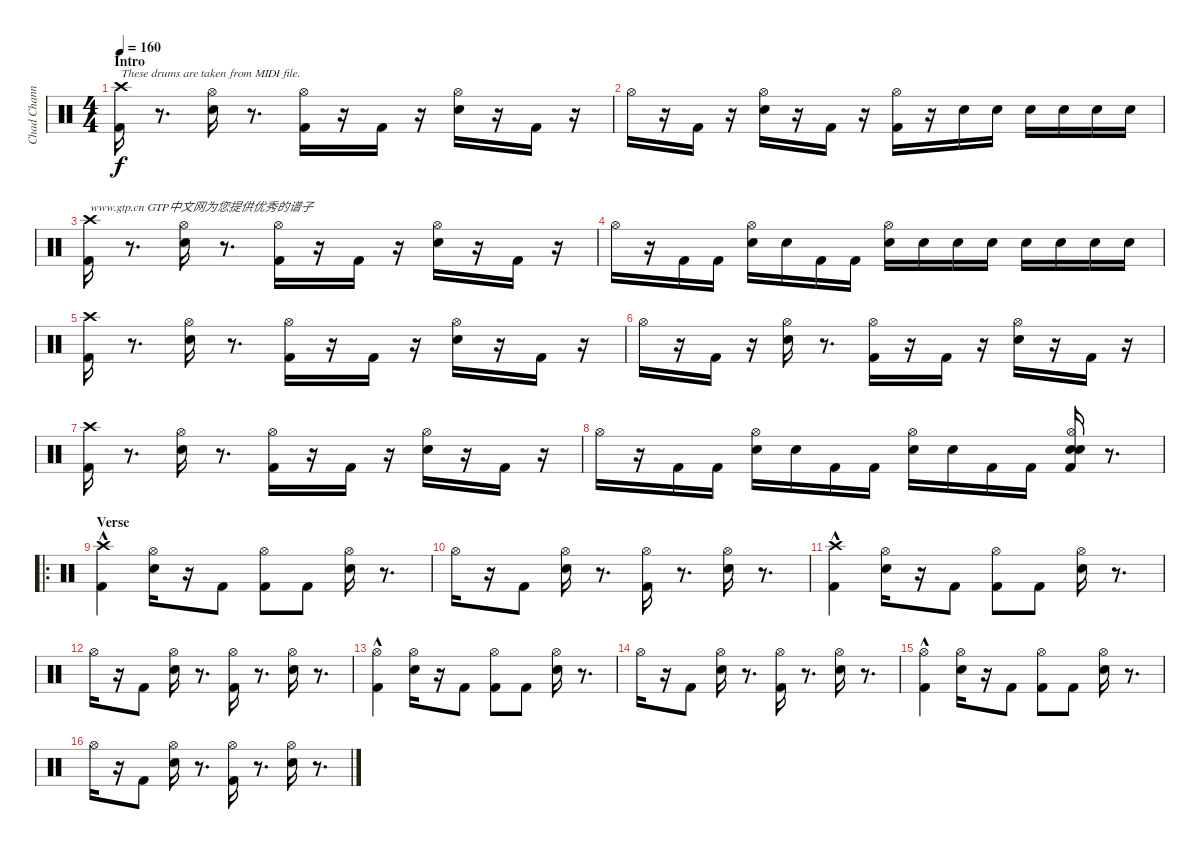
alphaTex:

\track ("Chad Channing" "Chad Chann") {instrument percussion}
\staff {score}
\articulation defaults
\ts (4 4)
\section ("" "Intro")
\tempo 160
\clef neutral
\ks c
("Crash high (hit)" "Kick (hit) 2").16{txt "These drums are taken from MIDI file." dy f} r.8{d} ("Hi-Hat (open)" "Electric Snare (hit)").16 r.8{d} ("Hi-Hat (open)" "Kick (hit) 2").16 r.16 "Kick (hit) 2".16 r.16 ("Electric Snare (hit)" "Hi-Hat (open)").16 r.16 "Kick (hit) 2".16 r.16 |
"Hi-Hat (open)".16 r.16 "Kick (hit) 2".16 r.16 ("Hi-Hat (open)" "Electric Snare (hit)").16 r.16 "Kick (hit) 2".16 r.16 ("Kick (hit) 2" "Hi-Hat (open)").16 r.16 "Electric Snare (hit)".16 "Electric Snare (hit)".16 "Electric Snare (hit)".16 "Electric Snare (hit)".16 "Electric Snare (hit)".16 "Electric Snare (hit)".16 |
("Crash high (hit)" "Kick (hit) 2").16{txt "www.gtp.cn GTP中文网为您提供优秀的谱子"} r.8{d} ("Hi-Hat (open)" "Electric Snare (hit)").16 r.8{d} ("Hi-Hat (open)" "Kick (hit) 2").16 r.16 "Kick (hit) 2".16 r.16 ("Electric Snare (hit)" "Hi-Hat (open)").16 r.16 "Kick (hit) 2".16 r.16 |
"Hi-Hat (open)".16 r.16 "Kick (hit) 2".16 "Kick (hit) 2".16 ("Hi-Hat (open)" "Electric Snare (hit)").16 "Electric Snare (hit)".16 "Kick (hit) 2".16 "Kick (hit) 2".16 ("Hi-Hat (open)" "Electric Snare (hit)").16 "Electric Snare (hit)".16 "Electric Snare (hit)".16 "Electric Snare (hit)".16 "Electric Snare (hit)".16 "Electric Snare (hit)".16 "Electric Snare (hit)".16 "Electric Snare (hit)".16 |
("Crash high (hit)" "Kick (hit) 2").16 r.8{d} ("Hi-Hat (open)" "Electric Snare (hit)").16 r.8{d} ("Hi-Hat (open)" "Kick (hit) 2").16 r.16 "Kick (hit) 2".16 r.16 ("Electric Snare (hit)" "Hi-Hat (open)").16 r.16 "Kick (hit) 2".16 r.16 |
"Hi-Hat (open)".16 r.16 "Kick (hit) 2".16 r.16 ("Hi-Hat (open)" "Electric Snare (hit)").16 r.8{d} ("Kick (hit) 2" "Hi-Hat (open)").16 r.16 "Kick (hit) 2".16 r.16 ("Hi-Hat (open)" "Electric Snare (hit)").16 r.16 "Kick (hit) 2".16 r.16 |
("Crash high (hit)" "Kick (hit) 2").16 r.8{d} ("Hi-Hat (open)" "Electric Snare (hit)").16 r.8{d} ("Hi-Hat (open)" "Kick (hit) 2").16 r.16 "Kick (hit) 2".16 r.16 ("Electric Snare (hit)" "Hi-Hat (open)").16 r.16 "Kick (hit) 2".16 r.16 |
"Hi-Hat (open)".16 r.16 "Kick (hit) 2".16 "Kick (hit) 2".16 ("Hi-Hat (open)" "Electric Snare (hit)").16 "Electric Snare (hit)".16 "Kick (hit) 2".16 "Kick (hit) 2".16 ("Hi-Hat (open)" "Electric Snare (hit)").16 "Electric Snare (hit)".16 "Kick (hit) 2".16 "Kick (hit) 2".16 ("Hi-Hat (open)" "Electric Snare (hit)" "Kick (hit) 2" "Electric Snare (hit)").16 r.8{d} |
\ro
\section ("" "Verse")
("Crash high (hit)" "Kick (hit) 2"{hac}).4 ("Hi-Hat (open)" "Electric Snare (hit)").16 r.16 "Kick (hit) 2".8 ("Hi-Hat (open)" "Kick (hit) 2").8 "Kick (hit) 2".8 ("Hi-Hat (open)" "Electric Snare (hit)").16 r.8{d} |
"Hi-Hat (open)".16 r.16 "Kick (hit) 2".8 ("Hi-Hat (open)" "Electric Snare (hit)").16 r.8{d} ("Hi-Hat (open)" "Kick (hit) 2").16 r.8{d} ("Hi-Hat (open)" "Electric Snare (hit)").16 r.8{d} |
("Crash high (hit)" "Kick (hit) 2"{hac}).4 ("Hi-Hat (open)" "Electric Snare (hit)").16 r.16 "Kick (hit) 2".8 ("Hi-Hat (open)" "Kick (hit) 2").8 "Kick (hit) 2".8 ("Hi-Hat (open)" "Electric Snare (hit)").16 r.8{d} |
"Hi-Hat (open)".16 r.16 "Kick (hit) 2".8 ("Hi-Hat (open)" "Electric Snare (hit)").16 r.8{d} ("Hi-Hat (open)" "Kick (hit) 2").16 r.8{d} ("Hi-Hat (open)" "Electric Snare (hit)").16 r.8{d} |
("Kick (hit) 2"{hac} "Hi-Hat (open)").4 ("Hi-Hat (open)" "Electric Snare (hit)").16 r.16 "Kick (hit) 2".8 ("Hi-Hat (open)" "Kick (hit) 2").8 "Kick (hit) 2".8 ("Hi-Hat (open)" "Electric Snare (hit)").16 r.8{d} |
"Hi-Hat (open)".16 r.16 "Kick (hit) 2".8 ("Hi-Hat (open)" "Electric Snare (hit)").16 r.8{d} ("Hi-Hat (open)" "Kick (hit) 2").16 r.8{d} ("Hi-Hat (open)" "Electric Snare (hit)").16 r.8{d} |
("Kick (hit) 2"{hac} "Hi-Hat (open)").4 ("Hi-Hat (open)" "Electric Snare (hit)").16 r.16 "Kick (hit) 2".8 ("Hi-Hat (open)" "Kick (hit) 2").8 "Kick (hit) 2".8 ("Hi-Hat (open)" "Electric Snare (hit)").16 r.8{d} |
"Hi-Hat (open)".16 r.16 "Kick (hit) 2".8 ("Hi-Hat (open)" "Electric Snare (hit)").16 r.8{d} ("Hi-Hat (open)" "Kick (hit) 2").16 r.8{d} ("Hi-Hat (open)" "Electric Snare (hit)").16 r.8{d}
